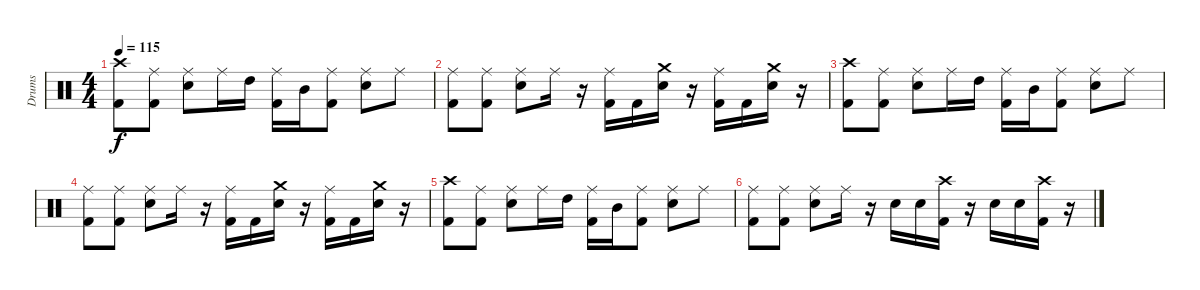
\track ("Drums" "Drums") {instrument percussion}
\staff {score}
\articulation defaults
\ts (4 4)
\tempo 115
\clef neutral
\ks c
("Crash high (hit)" "Kick (hit) 2").8{dy f} ("Ride (middle)" "Kick (hit) 2").8 ("Ride (middle)" "Snare (hit) 2").8 "Ride (middle)".16 "High Tom (hit)".16 ("Ride (middle)" "Kick (hit) 2").16 "Mid Tom (hit)".16 ("Ride (middle)" "Kick (hit) 2").8 ("Ride (middle)" "Snare (hit) 2").8 "Ride (middle)".8 |
("Ride (middle)" "Kick (hit) 2").8 ("Ride (middle)" "Kick (hit) 2").8 ("Ride (middle)" "Snare (hit) 2").8 "Ride (middle)".16 r.16 ("Ride (middle)" "Kick (hit) 2").16 "Kick (hit) 2".16 ("Crash medium (hit)" "Snare (hit) 2").16 r.16 ("Ride (middle)" "Kick (hit) 2").16 "Kick (hit) 2".16 ("Crash medium (hit)" "Snare (hit) 2").16 r.16 |
("Crash high (hit)" "Kick (hit) 2").8 ("Ride (middle)" "Kick (hit) 2").8 ("Ride (middle)" "Snare (hit) 2").8 "Ride (middle)".16 "High Tom (hit)".16 ("Ride (middle)" "Kick (hit) 2").16 "Mid Tom (hit)".16 ("Ride (middle)" "Kick (hit) 2").8 ("Ride (middle)" "Snare (hit) 2").8 "Ride (middle)".8 |
("Ride (middle)" "Kick (hit) 2").8 ("Ride (middle)" "Kick (hit) 2").8 ("Ride (middle)" "Snare (hit) 2").8 "Ride (middle)".16 r.16 ("Ride (middle)" "Kick (hit) 2").16 "Kick (hit) 2".16 ("Crash medium (hit)" "Snare (hit) 2").16 r.16 ("Ride (middle)" "Kick (hit) 2").16 "Kick (hit) 2".16 ("Crash medium (hit)" "Snare (hit) 2").16 r.16 |
("Crash high (hit)" "Kick (hit) 2").8 ("Ride (middle)" "Kick (hit) 2").8 ("Ride (middle)" "Snare (hit) 2").8 "Ride (middle)".16 "High Tom (hit)".16 ("Ride (middle)" "Kick (hit) 2").16 "Mid Tom (hit)".16 ("Ride (middle)" "Kick (hit) 2").8 ("Ride (middle)" "Snare (hit) 2").8 "Ride (middle)".8 |
("Ride (middle)" "Kick (hit) 2").8 ("Ride (middle)" "Kick (hit) 2").8 ("Ride (middle)" "Snare (hit) 2").8 "Ride (middle)".16 r.16 "Snare (hit) 2".16 "Snare (hit) 2".16 ("Crash high (hit)" "Kick (hit) 2").16 r.16 "Snare (hit) 2".16 "Snare (hit) 2".16 ("Crash high (hit)" "Kick (hit) 2").16 r.16
